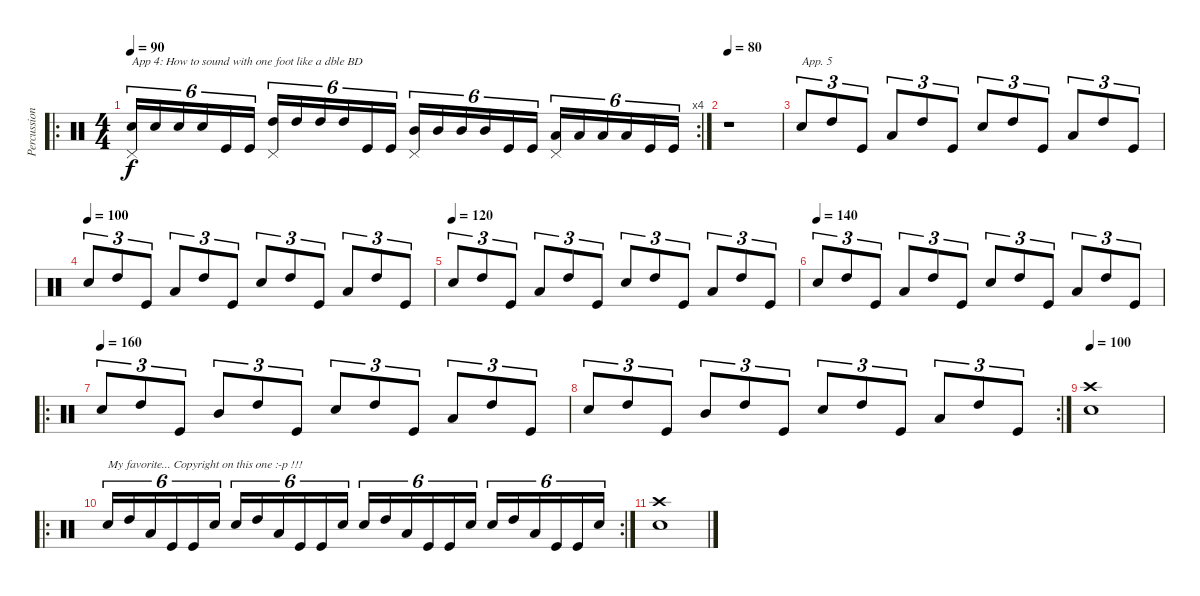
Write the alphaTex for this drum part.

\track ("Percussions" "Percussion") {instrument percussion}
\staff {score}
\articulation defaults
\ro
\rc 4
\ts (4 4)
\tempo 90
\clef neutral
\ks c
("Electric Snare (hit)" "Pedal Hi-Hat (hit)").16{tu (6 4) txt "App 4: How to sound with one foot like a dble BD" dy f} "Electric Snare (hit)".16{tu (6 4)} "Electric Snare (hit)".16{tu (6 4)} "Electric Snare (hit)".16{tu (6 4)} "Kick (hit)".16{tu (6 4)} "Kick (hit)".16{tu (6 4)} ("High Tom (hit)" "Pedal Hi-Hat (hit)").16{tu (6 4)} "High Tom (hit)".16{tu (6 4)} "High Tom (hit)".16{tu (6 4)} "High Tom (hit)".16{tu (6 4)} "Kick (hit)".16{tu (6 4)} "Kick (hit)".16{tu (6 4)} ("Mid Tom (hit)" "Pedal Hi-Hat (hit)").16{tu (6 4)} "Mid Tom (hit)".16{tu (6 4)} "Mid Tom (hit)".16{tu (6 4)} "Mid Tom (hit)".16{tu (6 4)} "Kick (hit)".16{tu (6 4)} "Kick (hit)".16{tu (6 4)} ("Low Tom (hit)" "Pedal Hi-Hat (hit)").16{tu (6 4)} "Low Tom (hit)".16{tu (6 4)} "Low Tom (hit)".16{tu (6 4)} "Low Tom (hit)".16{tu (6 4)} "Kick (hit)".16{tu (6 4)} "Kick (hit)".16{tu (6 4)} |
\tempo 80
r.1 |
"Electric Snare (hit)".8{tu (3 2) txt "App. 5"} "High Tom (hit)".8{tu (3 2)} "Kick (hit)".8{tu (3 2)} "Low Tom (hit)".8{tu (3 2)} "High Tom (hit)".8{tu (3 2)} "Kick (hit)".8{tu (3 2)} "Electric Snare (hit)".8{tu (3 2)} "High Tom (hit)".8{tu (3 2)} "Kick (hit)".8{tu (3 2)} "Low Tom (hit)".8{tu (3 2)} "High Tom (hit)".8{tu (3 2)} "Kick (hit)".8{tu (3 2)} |
\tempo (100)
"Electric Snare (hit)".8{tu (3 2)} "High Tom (hit)".8{tu (3 2)} "Kick (hit)".8{tu (3 2)} "Low Tom (hit)".8{tu (3 2)} "High Tom (hit)".8{tu (3 2)} "Kick (hit)".8{tu (3 2)} "Electric Snare (hit)".8{tu (3 2)} "High Tom (hit)".8{tu (3 2)} "Kick (hit)".8{tu (3 2)} "Low Tom (hit)".8{tu (3 2)} "High Tom (hit)".8{tu (3 2)} "Kick (hit)".8{tu (3 2)} |
\tempo (120)
"Electric Snare (hit)".8{tu (3 2)} "High Tom (hit)".8{tu (3 2)} "Kick (hit)".8{tu (3 2)} "Low Tom (hit)".8{tu (3 2)} "High Tom (hit)".8{tu (3 2)} "Kick (hit)".8{tu (3 2)} "Electric Snare (hit)".8{tu (3 2)} "High Tom (hit)".8{tu (3 2)} "Kick (hit)".8{tu (3 2)} "Low Tom (hit)".8{tu (3 2)} "High Tom (hit)".8{tu (3 2)} "Kick (hit)".8{tu (3 2)} |
\tempo (140)
"Electric Snare (hit)".8{tu (3 2)} "High Tom (hit)".8{tu (3 2)} "Kick (hit)".8{tu (3 2)} "Low Tom (hit)".8{tu (3 2)} "High Tom (hit)".8{tu (3 2)} "Kick (hit)".8{tu (3 2)} "Electric Snare (hit)".8{tu (3 2)} "High Tom (hit)".8{tu (3 2)} "Kick (hit)".8{tu (3 2)} "Low Tom (hit)".8{tu (3 2)} "High Tom (hit)".8{tu (3 2)} "Kick (hit)".8{tu (3 2)} |
\ro
\tempo (160)
"Electric Snare (hit)".8{tu (3 2)} "High Tom (hit)".8{tu (3 2)} "Kick (hit)".8{tu (3 2)} "Mid Tom (hit)".8{tu (3 2)} "High Tom (hit)".8{tu (3 2)} "Kick (hit)".8{tu (3 2)} "Electric Snare (hit)".8{tu (3 2)} "High Tom (hit)".8{tu (3 2)} "Kick (hit)".8{tu (3 2)} "Low Tom (hit)".8{tu (3 2)} "High Tom (hit)".8{tu (3 2)} "Kick (hit)".8{tu (3 2)} |
\rc 2 "Electric Snare (hit)".8{tu (3 2)} "High Tom (hit)".8{tu (3 2)} "Kick (hit)".8{tu (3 2)} "Mid Tom (hit)".8{tu (3 2)} "High Tom (hit)".8{tu (3 2)} "Kick (hit)".8{tu (3 2)} "Electric Snare (hit)".8{tu (3 2)} "High Tom (hit)".8{tu (3 2)} "Kick (hit)".8{tu (3 2)} "Low Tom (hit)".8{tu (3 2)} "High Tom (hit)".8{tu (3 2)} "Kick (hit)".8{tu (3 2)}
|
\tempo 100
("Crash high (hit)" "Snare (hit) 2").1 |
\ro
\rc 2 "Electric Snare (hit)".16{tu (6 4) txt "My favorite... Copyright on this one :-p !!!"} "High Tom (hit)".16{tu (6 4)} "Low Tom (hit)".16{tu (6 4)} "Kick (hit)".16{tu (6 4)} "Kick (hit)".16{tu (6 4)} "Electric Snare (hit)".16{tu (6 4)} "Electric Snare (hit)".16{tu (6 4)} "High Tom (hit)".16{tu (6 4)} "Low Tom (hit)".16{tu (6 4)} "Kick (hit)".16{tu (6 4)} "Kick (hit)".16{tu (6 4)} "Electric Snare (hit)".16{tu (6 4)} "Electric Snare (hit)".16{tu (6 4)} "High Tom (hit)".16{tu (6 4)} "Low Tom (hit)".16{tu (6 4)} "Kick (hit)".16{tu (6 4)} "Kick (hit)".16{tu (6 4)} "Electric Snare (hit)".16{tu (6 4)} "Electric Snare (hit)".16{tu (6 4)} "High Tom (hit)".16{tu (6 4)} "Low Tom (hit)".16{tu (6 4)} "Kick (hit)".16{tu (6 4)} "Kick (hit)".16{tu (6 4)} "Electric Snare (hit)".16{tu (6 4)}
|
("Crash high (hit)" "Snare (hit) 2").1
